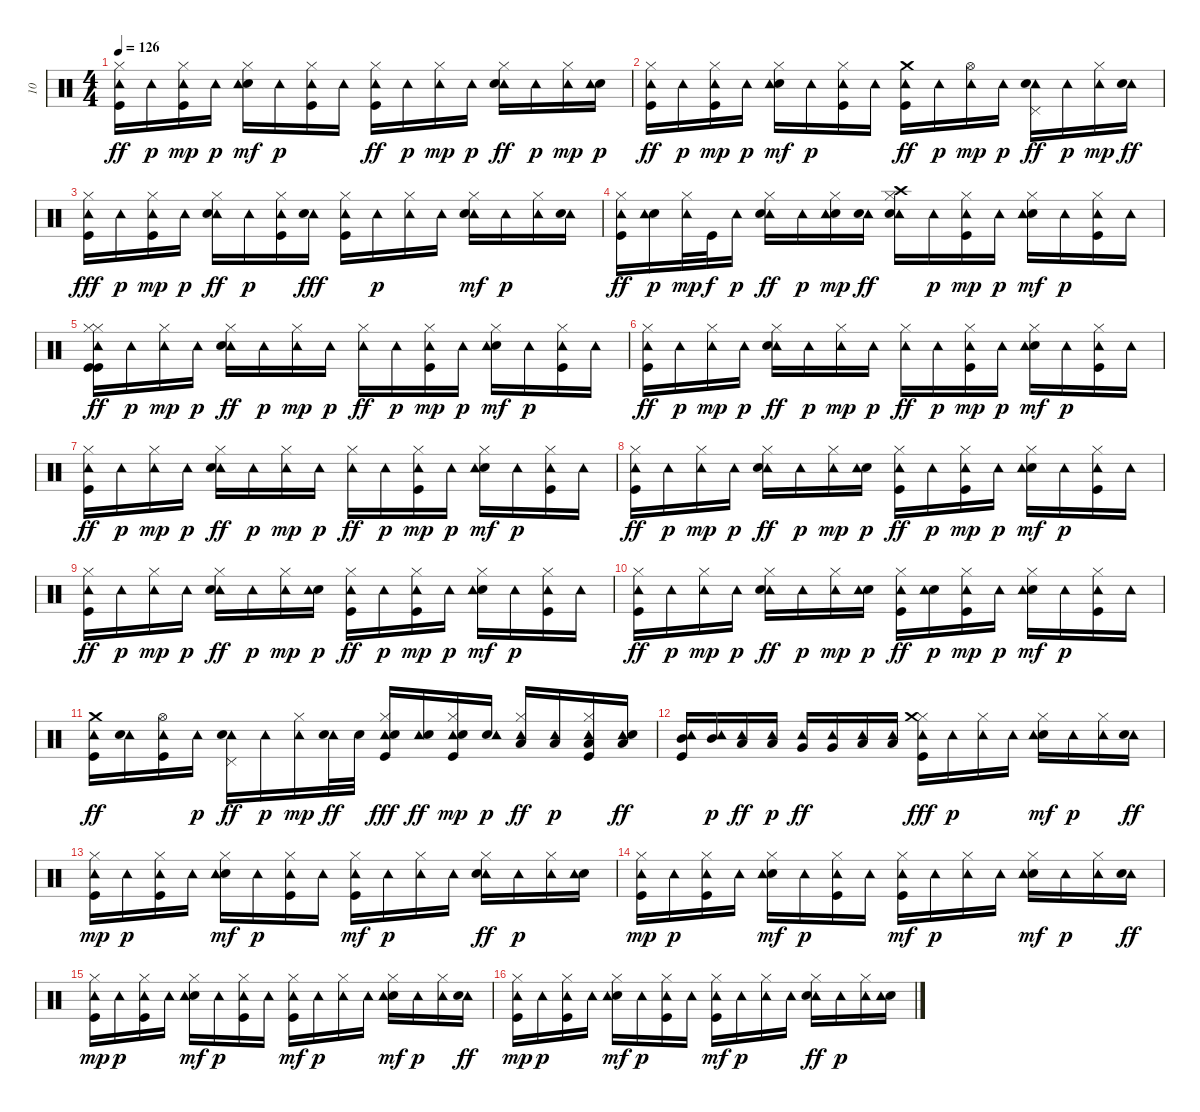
\track ("10" "10") {instrument percussion}
\staff {score}
\articulation defaults
\ts (4 4)
\tempo 126
\clef neutral
\ks c
("Kick (hit)" "Tambourine (hit)" "Hi-Hat (closed)").16{dy ff} "Tambourine (hit)".16{dy p} ("Tambourine (hit)" "Kick (hit)" "Hi-Hat (closed)").16{dy mp} "Tambourine (hit)".16{dy p} ("Electric Snare (hit)" "Tambourine (hit)" "Hi-Hat (closed)").16{dy mf} "Tambourine (hit)".16{dy p} ("Kick (hit)" "Tambourine (hit)" "Hi-Hat (closed)").16 "Tambourine (hit)".16 ("Tambourine (hit)" "Kick (hit)" "Hi-Hat (closed)").16{dy ff} "Tambourine (hit)".16{dy p} ("Tambourine (hit)" "Hi-Hat (closed)").16{dy mp} "Tambourine (hit)".16{dy p} ("Tambourine (hit)" "Hi-Hat (closed)" "Electric Snare (hit)").16{dy ff} "Tambourine (hit)".16{dy p} ("Tambourine (hit)" "Hi-Hat (closed)").16{dy mp} ("Electric Snare (hit)" "Tambourine (hit)").16{dy p} |
("Kick (hit)" "Tambourine (hit)" "Hi-Hat (closed)").16{dy ff} "Tambourine (hit)".16{dy p} ("Tambourine (hit)" "Kick (hit)" "Hi-Hat (closed)").16{dy mp} "Tambourine (hit)".16{dy p} ("Electric Snare (hit)" "Tambourine (hit)" "Hi-Hat (closed)").16{dy mf} "Tambourine (hit)".16{dy p} ("Kick (hit)" "Tambourine (hit)" "Hi-Hat (closed)").16 "Tambourine (hit)".16 ("Tambourine (hit)" "Kick (hit)" "Crash medium (hit)").16{dy ff} "Tambourine (hit)".16{dy p} ("Tambourine (hit)" "Hi-Hat (open)").16{dy mp} "Tambourine (hit)".16{dy p} ("Tambourine (hit)" "Pedal Hi-Hat (hit)" "Electric Snare (hit)").16{dy ff} "Tambourine (hit)".16{dy p} ("Tambourine (hit)" "Hi-Hat (closed)").16{dy mp} ("Tambourine (hit)" "Electric Snare (hit)").16{dy ff} |
("Tambourine (hit)" "Hi-Hat (closed)" "Kick (hit)").16{dy fff} "Tambourine (hit)".16{dy p} ("Tambourine (hit)" "Kick (hit)" "Hi-Hat (closed)").16{dy mp} "Tambourine (hit)".16{dy p} ("Tambourine (hit)" "Electric Snare (hit)" "Hi-Hat (closed)").16{dy ff} "Tambourine (hit)".16{dy p} ("Kick (hit)" "Tambourine (hit)" "Hi-Hat (closed)").16 ("Tambourine (hit)" "Electric Snare (hit)").16{dy fff} ("Tambourine (hit)" "Kick (hit)" "Hi-Hat (closed)").16 "Tambourine (hit)".16{dy p} ("Tambourine (hit)" "Hi-Hat (closed)").16 "Tambourine (hit)".16 ("Tambourine (hit)" "Hi-Hat (closed)" "Electric Snare (hit)").16{dy mf} "Tambourine (hit)".16{dy p} ("Hi-Hat (closed)" "Tambourine (hit)").16 ("Tambourine (hit)" "Electric Snare (hit)").16 |
("Tambourine (hit)" "Kick (hit)" "Hi-Hat (closed)").16{dy ff} ("Electric Snare (hit)" "Tambourine (hit)").16{dy p} ("Tambourine (hit)" "Hi-Hat (closed)").32{dy mp} "Kick (hit)".32{dy f} "Tambourine (hit)".16{dy p} ("Tambourine (hit)" "Hi-Hat (closed)" "Electric Snare (hit)").16{dy ff} "Tambourine (hit)".16{dy p} ("Electric Snare (hit)" "Tambourine (hit)" "Hi-Hat (closed)").16{dy mp} ("Tambourine (hit)" "Electric Snare (hit)").16{dy ff} ("Crash high (hit)" "Tambourine (hit)" "Electric Snare (hit)" "Hi-Hat (closed)").16 "Tambourine (hit)".16{dy p} ("Tambourine (hit)" "Kick (hit)" "Hi-Hat (closed)").16{dy mp} "Tambourine (hit)".16{dy p} ("Electric Snare (hit)" "Tambourine (hit)" "Hi-Hat (closed)").16{dy mf} "Tambourine (hit)".16{dy p} ("Kick (hit)" "Tambourine (hit)" "Hi-Hat (closed)").16 "Tambourine (hit)".16 |
("Tambourine (hit)" "Kick (hit)" "Kick (hit)" "Hi-Hat (closed)" "Hi-Hat (closed)").16{dy ff} "Tambourine (hit)".16{dy p} ("Tambourine (hit)" "Hi-Hat (closed)").16{dy mp} "Tambourine (hit)".16{dy p} ("Tambourine (hit)" "Hi-Hat (closed)" "Electric Snare (hit)").16{dy ff} "Tambourine (hit)".16{dy p} ("Tambourine (hit)" "Hi-Hat (closed)").16{dy mp} "Tambourine (hit)".16{dy p} ("Tambourine (hit)" "Hi-Hat (closed)").16{dy ff} "Tambourine (hit)".16{dy p} ("Tambourine (hit)" "Kick (hit)" "Hi-Hat (closed)").16{dy mp} "Tambourine (hit)".16{dy p} ("Electric Snare (hit)" "Tambourine (hit)" "Hi-Hat (closed)").16{dy mf} "Tambourine (hit)".16{dy p} ("Kick (hit)" "Tambourine (hit)" "Hi-Hat (closed)").16 "Tambourine (hit)".16 |
("Tambourine (hit)" "Kick (hit)" "Hi-Hat (closed)").16{dy ff} "Tambourine (hit)".16{dy p} ("Tambourine (hit)" "Hi-Hat (closed)").16{dy mp} "Tambourine (hit)".16{dy p} ("Tambourine (hit)" "Hi-Hat (closed)" "Electric Snare (hit)").16{dy ff} "Tambourine (hit)".16{dy p} ("Tambourine (hit)" "Hi-Hat (closed)").16{dy mp} "Tambourine (hit)".16{dy p} ("Tambourine (hit)" "Hi-Hat (closed)").16{dy ff} "Tambourine (hit)".16{dy p} ("Tambourine (hit)" "Kick (hit)" "Hi-Hat (closed)").16{dy mp} "Tambourine (hit)".16{dy p} ("Electric Snare (hit)" "Tambourine (hit)" "Hi-Hat (closed)").16{dy mf} "Tambourine (hit)".16{dy p} ("Kick (hit)" "Tambourine (hit)" "Hi-Hat (closed)").16 "Tambourine (hit)".16 |
("Tambourine (hit)" "Kick (hit)" "Hi-Hat (closed)").16{dy ff} "Tambourine (hit)".16{dy p} ("Tambourine (hit)" "Hi-Hat (closed)").16{dy mp} "Tambourine (hit)".16{dy p} ("Tambourine (hit)" "Hi-Hat (closed)" "Electric Snare (hit)").16{dy ff} "Tambourine (hit)".16{dy p} ("Tambourine (hit)" "Hi-Hat (closed)").16{dy mp} "Tambourine (hit)".16{dy p} ("Tambourine (hit)" "Hi-Hat (closed)").16{dy ff} "Tambourine (hit)".16{dy p} ("Tambourine (hit)" "Kick (hit)" "Hi-Hat (closed)").16{dy mp} "Tambourine (hit)".16{dy p} ("Electric Snare (hit)" "Tambourine (hit)" "Hi-Hat (closed)").16{dy mf} "Tambourine (hit)".16{dy p} ("Kick (hit)" "Tambourine (hit)" "Hi-Hat (closed)").16 "Tambourine (hit)".16 |
("Tambourine (hit)" "Kick (hit)" "Hi-Hat (closed)").16{dy ff} "Tambourine (hit)".16{dy p} ("Tambourine (hit)" "Hi-Hat (closed)").16{dy mp} "Tambourine (hit)".16{dy p} ("Tambourine (hit)" "Hi-Hat (closed)" "Electric Snare (hit)").16{dy ff} "Tambourine (hit)".16{dy p} ("Tambourine (hit)" "Hi-Hat (closed)").16{dy mp} ("Electric Snare (hit)" "Tambourine (hit)").16{dy p} ("Kick (hit)" "Tambourine (hit)" "Hi-Hat (closed)").16{dy ff} "Tambourine (hit)".16{dy p} ("Tambourine (hit)" "Kick (hit)" "Hi-Hat (closed)").16{dy mp} "Tambourine (hit)".16{dy p} ("Electric Snare (hit)" "Tambourine (hit)" "Hi-Hat (closed)").16{dy mf} "Tambourine (hit)".16{dy p} ("Kick (hit)" "Tambourine (hit)" "Hi-Hat (closed)").16 "Tambourine (hit)".16 |
("Tambourine (hit)" "Kick (hit)" "Hi-Hat (closed)").16{dy ff} "Tambourine (hit)".16{dy p} ("Tambourine (hit)" "Hi-Hat (closed)").16{dy mp} "Tambourine (hit)".16{dy p} ("Tambourine (hit)" "Hi-Hat (closed)" "Electric Snare (hit)").16{dy ff} "Tambourine (hit)".16{dy p} ("Tambourine (hit)" "Hi-Hat (closed)").16{dy mp} ("Electric Snare (hit)" "Tambourine (hit)").16{dy p} ("Kick (hit)" "Tambourine (hit)" "Hi-Hat (closed)").16{dy ff} "Tambourine (hit)".16{dy p} ("Tambourine (hit)" "Kick (hit)" "Hi-Hat (closed)").16{dy mp} "Tambourine (hit)".16{dy p} ("Electric Snare (hit)" "Tambourine (hit)" "Hi-Hat (closed)").16{dy mf} "Tambourine (hit)".16{dy p} ("Kick (hit)" "Tambourine (hit)" "Hi-Hat (closed)").16 "Tambourine (hit)".16 |
("Tambourine (hit)" "Kick (hit)" "Hi-Hat (closed)").16{dy ff} "Tambourine (hit)".16{dy p} ("Tambourine (hit)" "Hi-Hat (closed)").16{dy mp} "Tambourine (hit)".16{dy p} ("Tambourine (hit)" "Hi-Hat (closed)" "Electric Snare (hit)").16{dy ff} "Tambourine (hit)".16{dy p} ("Tambourine (hit)" "Hi-Hat (closed)").16{dy mp} ("Electric Snare (hit)" "Tambourine (hit)").16{dy p} ("Kick (hit)" "Tambourine (hit)" "Hi-Hat (closed)").16{dy ff} ("Electric Snare (hit)" "Tambourine (hit)").16{dy p} ("Tambourine (hit)" "Kick (hit)" "Hi-Hat (closed)").16{dy mp} "Tambourine (hit)".16{dy p} ("Electric Snare (hit)" "Tambourine (hit)" "Hi-Hat (closed)").16{dy mf} "Tambourine (hit)".16{dy p} ("Kick (hit)" "Tambourine (hit)" "Hi-Hat (closed)").16 "Tambourine (hit)".16 |
("Tambourine (hit)" "Kick (hit)" "Crash medium (hit)").16{dy ff} ("Tambourine (hit)" "Electric Snare (hit)").16 ("Tambourine (hit)" "Hi-Hat (open)" "Kick (hit)").16 "Tambourine (hit)".16{dy p} ("Tambourine (hit)" "Pedal Hi-Hat (hit)" "Electric Snare (hit)").16{dy ff} "Tambourine (hit)".16{dy p} ("Tambourine (hit)" "Hi-Hat (closed)").16{dy mp} ("Tambourine (hit)" "Electric Snare (hit)").32{dy ff} "Electric Snare (hit)".32 ("Tambourine (hit)" "Hi-Hat (closed)" "Electric Snare (hit)" "Kick (hit)").16{dy fff} ("Tambourine (hit)" "Electric Snare (hit)").16{dy ff} ("Tambourine (hit)" "Electric Snare (hit)" "Kick (hit)" "Hi-Hat (closed)").16{dy mp} ("Electric Snare (hit)" "Tambourine (hit)").16{dy p} ("Tambourine (hit)" "Low Tom (hit)" "Hi-Hat (closed)").16{dy ff} ("Low Tom (hit)" "Tambourine (hit)").16{dy p} ("Kick (hit)" "Low Tom (hit)" "Tambourine (hit)" "Hi-Hat (closed)").16 ("Low Tom (hit)" "Tambourine (hit)" "Electric Snare (hit)").16{dy ff} |
("Tambourine (hit)" "Mid Tom (hit)" "Kick (hit)").16 ("Mid Tom (hit)" "Tambourine (hit)").16{dy p} ("Tambourine (hit)" "Low Tom (hit)").16{dy ff} ("Low Tom (hit)" "Tambourine (hit)").16{dy p} ("Tambourine (hit)" "Very Low Tom (hit)").16{dy ff} ("Tambourine (hit)" "Very Low Tom (hit)").16 ("Tambourine (hit)" "Low Floor Tom (hit)").16 ("Tambourine (hit)" "Low Floor Tom (hit)").16 ("Tambourine (hit)" "Kick (hit)" "Hi-Hat (closed)" "Crash medium (hit)").16{dy fff} "Tambourine (hit)".16{dy p} ("Tambourine (hit)" "Hi-Hat (closed)").16 "Tambourine (hit)".16 ("Electric Snare (hit)" "Tambourine (hit)" "Hi-Hat (closed)").16{dy mf} "Tambourine (hit)".16{dy p} ("Tambourine (hit)" "Hi-Hat (closed)").16 ("Tambourine (hit)" "Electric Snare (hit)").16{dy ff} |
("Kick (hit)" "Tambourine (hit)" "Hi-Hat (closed)").16{dy mp} "Tambourine (hit)".16{dy p} ("Hi-Hat (closed)" "Tambourine (hit)" "Kick (hit)").16 "Tambourine (hit)".16 ("Electric Snare (hit)" "Tambourine (hit)" "Hi-Hat (closed)").16{dy mf} "Tambourine (hit)".16{dy p} ("Tambourine (hit)" "Hi-Hat (closed)" "Kick (hit)").16 "Tambourine (hit)".16 ("Tambourine (hit)" "Kick (hit)" "Hi-Hat (closed)").16{dy mf} "Tambourine (hit)".16{dy p} ("Tambourine (hit)" "Hi-Hat (closed)").16 "Tambourine (hit)".16 ("Hi-Hat (closed)" "Tambourine (hit)" "Electric Snare (hit)").16{dy ff} "Tambourine (hit)".16{dy p} ("Hi-Hat (closed)" "Tambourine (hit)").16 ("Electric Snare (hit)" "Tambourine (hit)").16 |
("Hi-Hat (closed)" "Tambourine (hit)" "Kick (hit)").16{dy mp} "Tambourine (hit)".16{dy p} ("Hi-Hat (closed)" "Kick (hit)" "Tambourine (hit)").16 "Tambourine (hit)".16 ("Hi-Hat (closed)" "Electric Snare (hit)" "Tambourine (hit)").16{dy mf} "Tambourine (hit)".16{dy p} ("Tambourine (hit)" "Kick (hit)" "Hi-Hat (closed)").16 "Tambourine (hit)".16 ("Tambourine (hit)" "Kick (hit)" "Hi-Hat (closed)").16{dy mf} "Tambourine (hit)".16{dy p} ("Tambourine (hit)" "Hi-Hat (closed)").16 "Tambourine (hit)".16 ("Hi-Hat (closed)" "Electric Snare (hit)" "Tambourine (hit)").16{dy mf} "Tambourine (hit)".16{dy p} ("Tambourine (hit)" "Hi-Hat (closed)").16 ("Tambourine (hit)" "Electric Snare (hit)").16{dy ff} |
("Tambourine (hit)" "Hi-Hat (closed)" "Kick (hit)").16{dy mp} "Tambourine (hit)".16{dy p} ("Hi-Hat (closed)" "Tambourine (hit)" "Kick (hit)").16 "Tambourine (hit)".16 ("Electric Snare (hit)" "Tambourine (hit)" "Hi-Hat (closed)").16{dy mf} "Tambourine (hit)".16{dy p} ("Tambourine (hit)" "Kick (hit)" "Hi-Hat (closed)").16 "Tambourine (hit)".16 ("Tambourine (hit)" "Kick (hit)" "Hi-Hat (closed)").16{dy mf} "Tambourine (hit)".16{dy p} ("Tambourine (hit)" "Hi-Hat (closed)").16 "Tambourine (hit)".16 ("Electric Snare (hit)" "Tambourine (hit)" "Hi-Hat (closed)").16{dy mf} "Tambourine (hit)".16{dy p} ("Hi-Hat (closed)" "Tambourine (hit)").16 ("Tambourine (hit)" "Electric Snare (hit)").16{dy ff} |
("Hi-Hat (closed)" "Tambourine (hit)" "Kick (hit)").16{dy mp} "Tambourine (hit)".16{dy p} ("Tambourine (hit)" "Kick (hit)" "Hi-Hat (closed)").16 "Tambourine (hit)".16 ("Electric Snare (hit)" "Hi-Hat (closed)" "Tambourine (hit)").16{dy mf} "Tambourine (hit)".16{dy p} ("Hi-Hat (closed)" "Kick (hit)" "Tambourine (hit)").16 "Tambourine (hit)".16 ("Tambourine (hit)" "Kick (hit)" "Hi-Hat (closed)").16{dy mf} "Tambourine (hit)".16{dy p} ("Hi-Hat (closed)" "Tambourine (hit)").16 "Tambourine (hit)".16 ("Hi-Hat (closed)" "Tambourine (hit)" "Electric Snare (hit)").16{dy ff} "Tambourine (hit)".16{dy p} ("Tambourine (hit)" "Hi-Hat (closed)").16 ("Electric Snare (hit)" "Tambourine (hit)").16
